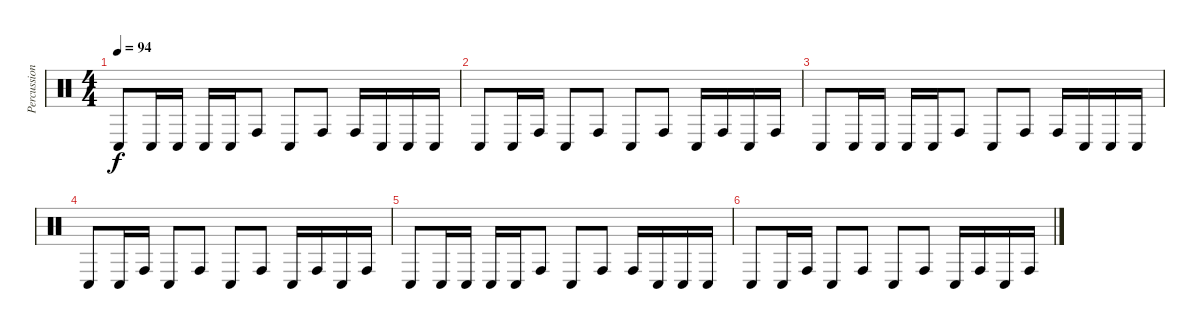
\track ("Percussion" "Percussion") {instrument percussion}
\staff {score}
\articulation defaults
\ts (4 4)
\tempo 94
\clef neutral
\ks c "Conga low (hit)".8{dy f volume 9} "Conga low (hit)".16 "Conga low (hit)".16 "Conga low (hit)".16 "Conga low (hit)".16 "Conga high (hit)".8 "Conga low (hit)".8 "Conga high (hit)".8 "Conga high (hit)".16 "Conga low (hit)".16 "Conga low (hit)".16 "Conga low (hit)".16
|
"Conga low (hit)".8{volume 7} "Conga low (hit)".16 "Conga high (hit)".16 "Conga low (hit)".8 "Conga high (hit)".8 "Conga low (hit)".8 "Conga high (hit)".8 "Conga low (hit)".16 "Conga high (hit)".16 "Conga low (hit)".16 "Conga high (hit)".16 |
"Conga low (hit)".8{volume 5} "Conga low (hit)".16 "Conga low (hit)".16 "Conga low (hit)".16 "Conga low (hit)".16 "Conga high (hit)".8 "Conga low (hit)".8 "Conga high (hit)".8 "Conga high (hit)".16 "Conga low (hit)".16 "Conga low (hit)".16 "Conga low (hit)".16 |
"Conga low (hit)".8{volume 3} "Conga low (hit)".16 "Conga high (hit)".16 "Conga low (hit)".8 "Conga high (hit)".8 "Conga low (hit)".8 "Conga high (hit)".8 "Conga low (hit)".16 "Conga high (hit)".16 "Conga low (hit)".16 "Conga high (hit)".16 |
"Conga low (hit)".8{volume 2} "Conga low (hit)".16 "Conga low (hit)".16 "Conga low (hit)".16 "Conga low (hit)".16 "Conga high (hit)".8 "Conga low (hit)".8 "Conga high (hit)".8 "Conga high (hit)".16 "Conga low (hit)".16 "Conga low (hit)".16 "Conga low (hit)".16 |
"Conga low (hit)".8{volume 1} "Conga low (hit)".16 "Conga high (hit)".16 "Conga low (hit)".8 "Conga high (hit)".8 "Conga low (hit)".8 "Conga high (hit)".8 "Conga low (hit)".16 "Conga high (hit)".16 "Conga low (hit)".16 "Conga high (hit)".16
